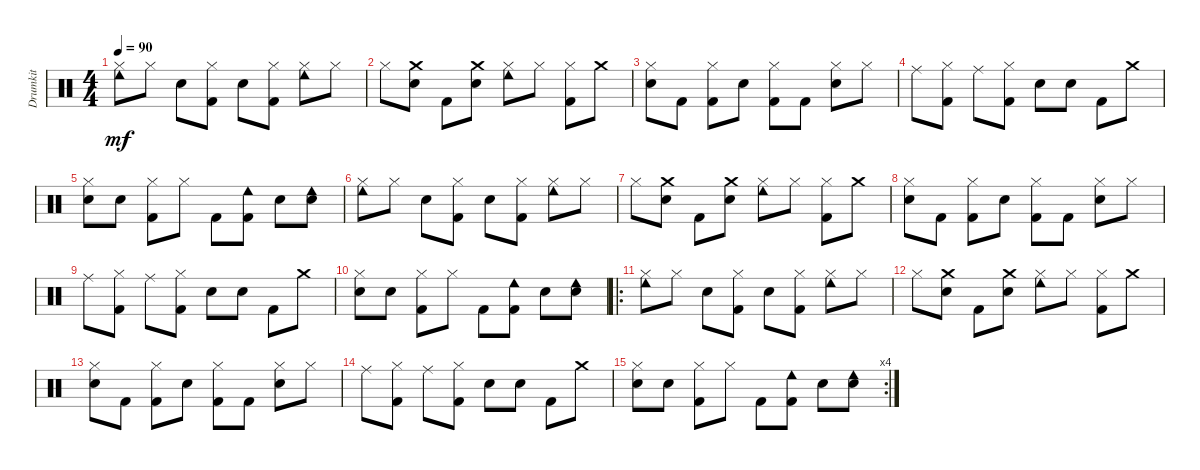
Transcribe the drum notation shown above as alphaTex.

\track ("Drumkit" "Drumkit") {instrument percussion}
\staff {score}
\articulation defaults
\ts (4 4)
\tempo 90
\clef neutral
\ks c
("Hi-Hat (closed)" "Cowbell low (hit)").8{dy mf} "Hi-Hat (closed)".8 "Snare (hit) 2".8 ("Kick (hit) 2" "Hi-Hat (closed)").8 "Snare (hit) 2".8 ("Kick (hit) 2" "Hi-Hat (closed)").8 ("Hi-Hat (closed)" "Cowbell low (hit)").8 "Hi-Hat (closed)".8 |
"Hi-Hat (closed)".8 ("Snare (hit) 2" "Crash medium (hit)").8 "Kick (hit) 2".8 ("Snare (hit) 2" "Crash medium (hit)").8 ("Hi-Hat (closed)" "Cowbell low (hit)").8 "Hi-Hat (closed)".8 ("Kick (hit) 2" "Hi-Hat (closed)").8 "Crash medium (hit)".8 |
("Snare (hit) 2" "Hi-Hat (closed)").8 "Kick (hit) 2".8 ("Kick (hit) 2" "Hi-Hat (closed)").8 "Snare (hit) 2".8 ("Kick (hit) 2" "Hi-Hat (closed)").8 "Kick (hit) 2".8 ("Snare (hit) 2" "Hi-Hat (closed)").8 "Hi-Hat (closed)".8 |
"Ride (middle)".8 ("Kick (hit) 2" "Hi-Hat (closed)").8 "Ride (middle)".8 ("Kick (hit) 2" "Hi-Hat (closed)").8 "Snare (hit) 2".8 "Snare (hit) 2".8 "Kick (hit) 2".8 "Crash medium (hit)".8 |
("Snare (hit) 2" "Hi-Hat (closed)").8 "Snare (hit) 2".8 ("Kick (hit) 2" "Hi-Hat (closed)").8 "Hi-Hat (closed)".8 "Kick (hit) 2".8 ("Kick (hit) 2" "Cowbell low (hit)").8 "Snare (hit) 2".8 ("Snare (hit) 2" "Cowbell low (hit)").8 |
("Hi-Hat (closed)" "Cowbell low (hit)").8 "Hi-Hat (closed)".8 "Snare (hit) 2".8 ("Kick (hit) 2" "Hi-Hat (closed)").8 "Snare (hit) 2".8 ("Kick (hit) 2" "Hi-Hat (closed)").8 ("Hi-Hat (closed)" "Cowbell low (hit)").8 "Hi-Hat (closed)".8 |
"Hi-Hat (closed)".8 ("Snare (hit) 2" "Crash medium (hit)").8 "Kick (hit) 2".8 ("Snare (hit) 2" "Crash medium (hit)").8 ("Hi-Hat (closed)" "Cowbell low (hit)").8 "Hi-Hat (closed)".8 ("Kick (hit) 2" "Hi-Hat (closed)").8 "Crash medium (hit)".8 |
("Snare (hit) 2" "Hi-Hat (closed)").8 "Kick (hit) 2".8 ("Kick (hit) 2" "Hi-Hat (closed)").8 "Snare (hit) 2".8 ("Kick (hit) 2" "Hi-Hat (closed)").8 "Kick (hit) 2".8 ("Snare (hit) 2" "Hi-Hat (closed)").8 "Hi-Hat (closed)".8 |
"Ride (middle)".8 ("Kick (hit) 2" "Hi-Hat (closed)").8 "Ride (middle)".8 ("Kick (hit) 2" "Hi-Hat (closed)").8 "Snare (hit) 2".8 "Snare (hit) 2".8 "Kick (hit) 2".8 "Crash medium (hit)".8 |
("Snare (hit) 2" "Hi-Hat (closed)").8 "Snare (hit) 2".8 ("Kick (hit) 2" "Hi-Hat (closed)").8 "Hi-Hat (closed)".8 "Kick (hit) 2".8 ("Kick (hit) 2" "Cowbell low (hit)").8 "Snare (hit) 2".8 ("Snare (hit) 2" "Cowbell low (hit)").8 |
\ro
("Hi-Hat (closed)" "Cowbell low (hit)").8 "Hi-Hat (closed)".8 "Snare (hit) 2".8 ("Kick (hit) 2" "Hi-Hat (closed)").8 "Snare (hit) 2".8 ("Kick (hit) 2" "Hi-Hat (closed)").8 ("Hi-Hat (closed)" "Cowbell low (hit)").8 "Hi-Hat (closed)".8 |
"Hi-Hat (closed)".8 ("Snare (hit) 2" "Crash medium (hit)").8 "Kick (hit) 2".8 ("Snare (hit) 2" "Crash medium (hit)").8 ("Hi-Hat (closed)" "Cowbell low (hit)").8 "Hi-Hat (closed)".8 ("Kick (hit) 2" "Hi-Hat (closed)").8 "Crash medium (hit)".8 |
("Snare (hit) 2" "Hi-Hat (closed)").8 "Kick (hit) 2".8 ("Kick (hit) 2" "Hi-Hat (closed)").8 "Snare (hit) 2".8 ("Kick (hit) 2" "Hi-Hat (closed)").8 "Kick (hit) 2".8 ("Snare (hit) 2" "Hi-Hat (closed)").8 "Hi-Hat (closed)".8 |
"Ride (middle)".8 ("Kick (hit) 2" "Hi-Hat (closed)").8 "Ride (middle)".8 ("Kick (hit) 2" "Hi-Hat (closed)").8 "Snare (hit) 2".8 "Snare (hit) 2".8 "Kick (hit) 2".8 "Crash medium (hit)".8 |
\rc 4
("Snare (hit) 2" "Hi-Hat (closed)").8 "Snare (hit) 2".8 ("Kick (hit) 2" "Hi-Hat (closed)").8 "Hi-Hat (closed)".8 "Kick (hit) 2".8 ("Kick (hit) 2" "Cowbell low (hit)").8 "Snare (hit) 2".8 ("Snare (hit) 2" "Cowbell low (hit)").8
